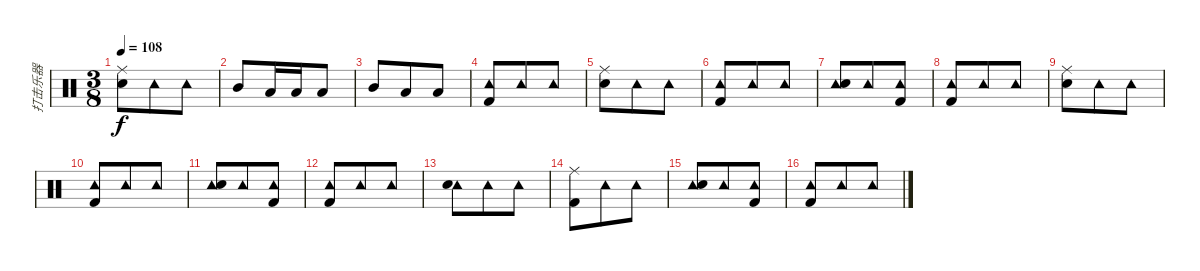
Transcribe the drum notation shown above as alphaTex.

\track ("打击乐器" "打击乐器") {instrument percussion}
\staff {score}
\articulation defaults
\ts (3 8)
\tempo 108
\clef neutral
\ks c
("Ride (middle)" "Snare (hit) 2").8{dy f} "Tambourine (hit)".8 "Tambourine (hit)".8 |
"Mid Tom (hit)".8 "Low Tom (hit)".16 "Low Floor Tom (hit)".16 "Low Floor Tom (hit)".8 |
"Mid Tom (hit)".8 "Low Tom (hit)".8 "Low Floor Tom (hit)".8 |
("Tambourine (hit)" "Kick (hit) 2").8 "Tambourine (hit)".8 "Tambourine (hit)".8 |
("Ride (middle)" "Snare (hit) 2").8 "Tambourine (hit)".8 "Tambourine (hit)".8 |
("Tambourine (hit)" "Kick (hit) 2").8 "Tambourine (hit)".8 "Tambourine (hit)".8 |
("Tambourine (hit)" "Snare (hit) 2").8 "Tambourine (hit)".8 ("Tambourine (hit)" "Kick (hit) 2").8 |
("Tambourine (hit)" "Kick (hit) 2").8 "Tambourine (hit)".8 "Tambourine (hit)".8 |
("Ride (middle)" "Snare (hit) 2").8 "Tambourine (hit)".8 "Tambourine (hit)".8 |
("Tambourine (hit)" "Kick (hit) 2").8 "Tambourine (hit)".8 "Tambourine (hit)".8 |
("Tambourine (hit)" "Snare (hit) 2").8 "Tambourine (hit)".8 ("Tambourine (hit)" "Kick (hit) 2").8 |
("Tambourine (hit)" "Kick (hit) 2").8 "Tambourine (hit)".8 "Tambourine (hit)".8 |
("Tambourine (hit)" "Snare (hit) 2").8 "Tambourine (hit)".8 "Tambourine (hit)".8 |
("Ride (middle)" "Kick (hit) 2").8 "Tambourine (hit)".8 "Tambourine (hit)".8 |
("Tambourine (hit)" "Snare (hit) 2").8 "Tambourine (hit)".8 ("Tambourine (hit)" "Kick (hit) 2").8 |
("Tambourine (hit)" "Kick (hit) 2").8 "Tambourine (hit)".8 "Tambourine (hit)".8
